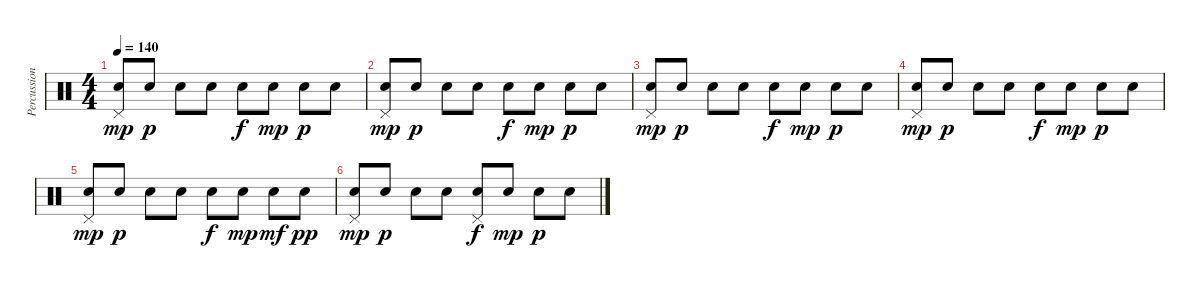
\track ("Percussion" "Percussion") {instrument percussion}
\staff {score}
\articulation defaults
\ts (4 4)
\tempo 140
\clef neutral
\ks c
("Pedal Hi-Hat (hit)" "Snare (hit) 2").8{dy mp} "Snare (hit) 2".8{dy p} "Snare (hit) 2".8 "Snare (hit) 2".8 "Snare (hit) 2".8{dy f} "Snare (hit) 2".8{dy mp} "Snare (hit) 2".8{dy p} "Snare (hit) 2".8 |
("Pedal Hi-Hat (hit)" "Snare (hit) 2").8{dy mp} "Snare (hit) 2".8{dy p} "Snare (hit) 2".8 "Snare (hit) 2".8 "Snare (hit) 2".8{dy f} "Snare (hit) 2".8{dy mp} "Snare (hit) 2".8{dy p} "Snare (hit) 2".8 |
("Pedal Hi-Hat (hit)" "Snare (hit) 2").8{dy mp} "Snare (hit) 2".8{dy p} "Snare (hit) 2".8 "Snare (hit) 2".8 "Snare (hit) 2".8{dy f} "Snare (hit) 2".8{dy mp} "Snare (hit) 2".8{dy p} "Snare (hit) 2".8 |
("Pedal Hi-Hat (hit)" "Snare (hit) 2").8{dy mp} "Snare (hit) 2".8{dy p} "Snare (hit) 2".8 "Snare (hit) 2".8 "Snare (hit) 2".8{dy f} "Snare (hit) 2".8{dy mp} "Snare (hit) 2".8{dy p} "Snare (hit) 2".8 |
("Pedal Hi-Hat (hit)" "Snare (hit) 2").8{dy mp} "Snare (hit) 2".8{dy p} "Snare (hit) 2".8 "Snare (hit) 2".8 "Snare (hit) 2".8{dy f} "Snare (hit) 2".8{dy mp} "Snare (hit) 2".8{dy mf} "Snare (hit) 2".8{dy pp} |
("Pedal Hi-Hat (hit)" "Snare (hit) 2").8{dy mp} "Snare (hit) 2".8{dy p} "Snare (hit) 2".8 "Snare (hit) 2".8 ("Pedal Hi-Hat (hit)" "Snare (hit) 2").8{dy f} "Snare (hit) 2".8{dy mp} "Snare (hit) 2".8{dy p} "Snare (hit) 2".8
